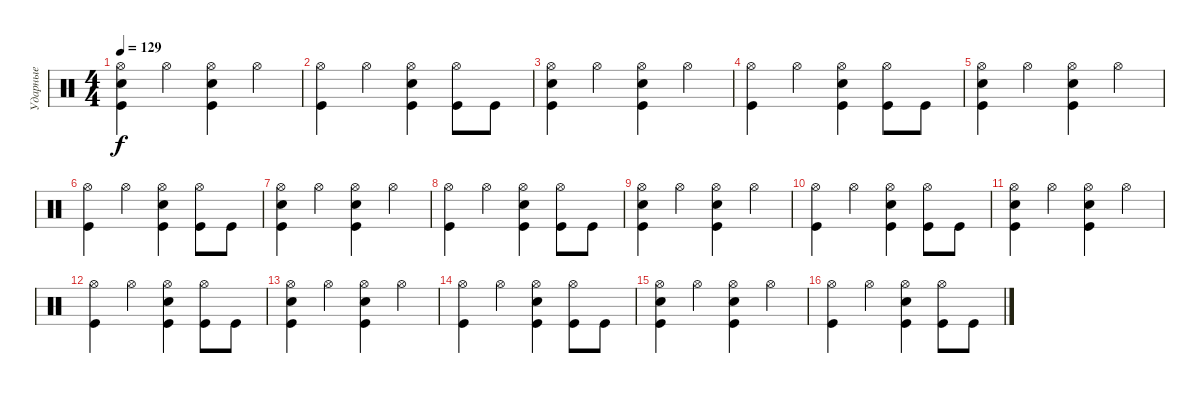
\track ("Ударные" "Ударные") {instrument percussion}
\staff {score}
\articulation defaults
\ts (4 4)
\tempo 129
\clef neutral
\ks c
("Hi-Hat (open)" "Snare (hit) 2" "Kick (hit)").4{dy f} "Hi-Hat (open)".4 ("Kick (hit)" "Hi-Hat (open)" "Snare (hit) 2").4 "Hi-Hat (open)".4 |
("Hi-Hat (open)" "Kick (hit)").4 "Hi-Hat (open)".4 ("Kick (hit)" "Hi-Hat (open)" "Snare (hit) 2").4 ("Hi-Hat (open)" "Kick (hit)").8 "Kick (hit)".8 |
("Hi-Hat (open)" "Snare (hit) 2" "Kick (hit)").4 "Hi-Hat (open)".4 ("Kick (hit)" "Hi-Hat (open)" "Snare (hit) 2").4 "Hi-Hat (open)".4 |
("Hi-Hat (open)" "Kick (hit)").4 "Hi-Hat (open)".4 ("Kick (hit)" "Hi-Hat (open)" "Snare (hit) 2").4 ("Hi-Hat (open)" "Kick (hit)").8 "Kick (hit)".8 |
("Hi-Hat (open)" "Snare (hit) 2" "Kick (hit)").4 "Hi-Hat (open)".4 ("Kick (hit)" "Hi-Hat (open)" "Snare (hit) 2").4 "Hi-Hat (open)".4 |
("Hi-Hat (open)" "Kick (hit)").4 "Hi-Hat (open)".4 ("Kick (hit)" "Hi-Hat (open)" "Snare (hit) 2").4 ("Hi-Hat (open)" "Kick (hit)").8 "Kick (hit)".8 |
("Hi-Hat (open)" "Snare (hit) 2" "Kick (hit)").4 "Hi-Hat (open)".4 ("Kick (hit)" "Hi-Hat (open)" "Snare (hit) 2").4 "Hi-Hat (open)".4 |
("Hi-Hat (open)" "Kick (hit)").4 "Hi-Hat (open)".4 ("Kick (hit)" "Hi-Hat (open)" "Snare (hit) 2").4 ("Hi-Hat (open)" "Kick (hit)").8 "Kick (hit)".8 |
("Hi-Hat (open)" "Snare (hit) 2" "Kick (hit)").4 "Hi-Hat (open)".4 ("Kick (hit)" "Hi-Hat (open)" "Snare (hit) 2").4 "Hi-Hat (open)".4 |
("Hi-Hat (open)" "Kick (hit)").4 "Hi-Hat (open)".4 ("Kick (hit)" "Hi-Hat (open)" "Snare (hit) 2").4 ("Hi-Hat (open)" "Kick (hit)").8 "Kick (hit)".8 |
("Hi-Hat (open)" "Snare (hit) 2" "Kick (hit)").4 "Hi-Hat (open)".4 ("Kick (hit)" "Hi-Hat (open)" "Snare (hit) 2").4 "Hi-Hat (open)".4 |
("Hi-Hat (open)" "Kick (hit)").4 "Hi-Hat (open)".4 ("Kick (hit)" "Hi-Hat (open)" "Snare (hit) 2").4 ("Hi-Hat (open)" "Kick (hit)").8 "Kick (hit)".8 |
("Hi-Hat (open)" "Snare (hit) 2" "Kick (hit)").4 "Hi-Hat (open)".4 ("Kick (hit)" "Hi-Hat (open)" "Snare (hit) 2").4 "Hi-Hat (open)".4 |
("Hi-Hat (open)" "Kick (hit)").4 "Hi-Hat (open)".4 ("Kick (hit)" "Hi-Hat (open)" "Snare (hit) 2").4 ("Hi-Hat (open)" "Kick (hit)").8 "Kick (hit)".8 |
("Hi-Hat (open)" "Snare (hit) 2" "Kick (hit)").4 "Hi-Hat (open)".4 ("Kick (hit)" "Hi-Hat (open)" "Snare (hit) 2").4 "Hi-Hat (open)".4 |
("Hi-Hat (open)" "Kick (hit)").4 "Hi-Hat (open)".4 ("Kick (hit)" "Hi-Hat (open)" "Snare (hit) 2").4 ("Hi-Hat (open)" "Kick (hit)").8 "Kick (hit)".8
